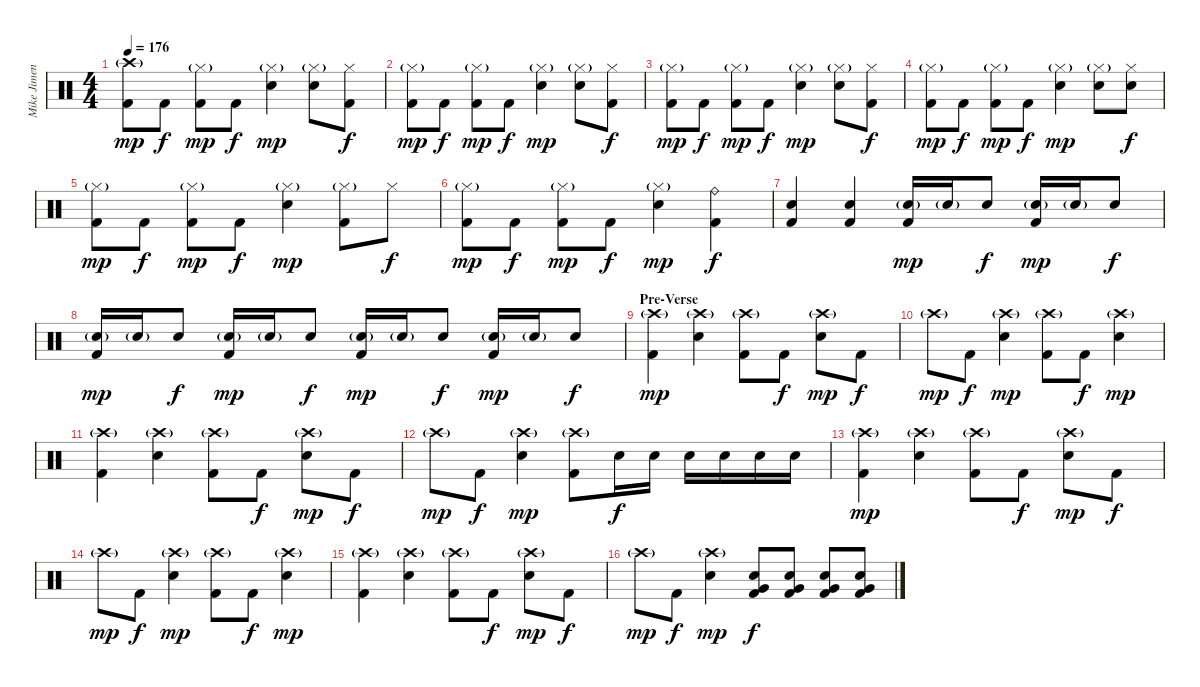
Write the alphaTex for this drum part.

\track ("Mike Jimenez" "Mike Jimen") {instrument percussion}
\staff {score}
\articulation defaults
\ts (4 4)
\tempo 176
\clef neutral
\ks c
("Crash high (hit)"{g} "Kick (hit) 2").8{dy mp} "Kick (hit) 2".8{dy f} ("Hi-Hat (closed)"{g} "Kick (hit) 2").8{dy mp} "Kick (hit) 2".8{dy f} ("Hi-Hat (closed)"{g} "Electric Snare (hit)").4{dy mp} ("Hi-Hat (closed)"{g} "Electric Snare (hit)").8 ("Hi-Hat (closed)" "Kick (hit) 2").8{dy f} |
("Hi-Hat (closed)"{g} "Kick (hit) 2").8{dy mp} "Kick (hit) 2".8{dy f} ("Hi-Hat (closed)"{g} "Kick (hit) 2").8{dy mp} "Kick (hit) 2".8{dy f} ("Hi-Hat (closed)"{g} "Electric Snare (hit)").4{dy mp} ("Hi-Hat (closed)"{g} "Electric Snare (hit)").8 ("Hi-Hat (closed)" "Kick (hit) 2").8{dy f} |
("Hi-Hat (closed)"{g} "Kick (hit) 2").8{dy mp} "Kick (hit) 2".8{dy f} ("Hi-Hat (closed)"{g} "Kick (hit) 2").8{dy mp} "Kick (hit) 2".8{dy f} ("Hi-Hat (closed)"{g} "Electric Snare (hit)").4{dy mp} ("Hi-Hat (closed)"{g} "Electric Snare (hit)").8 ("Hi-Hat (closed)" "Kick (hit) 2").8{dy f} |
("Hi-Hat (closed)"{g} "Kick (hit) 2").8{dy mp} "Kick (hit) 2".8{dy f} ("Hi-Hat (closed)"{g} "Kick (hit) 2").8{dy mp} "Kick (hit) 2".8{dy f} ("Hi-Hat (closed)"{g} "Electric Snare (hit)").4{dy mp} ("Hi-Hat (closed)"{g} "Electric Snare (hit)").8 ("Hi-Hat (closed)" "Electric Snare (hit)").8{dy f} |
("Hi-Hat (closed)"{g} "Kick (hit) 2").8{dy mp} "Kick (hit) 2".8{dy f} ("Hi-Hat (closed)"{g} "Kick (hit) 2").8{dy mp} "Kick (hit) 2".8{dy f} ("Hi-Hat (closed)"{g} "Electric Snare (hit)").4{dy mp} ("Hi-Hat (closed)"{g} "Kick (hit) 2").8 "Hi-Hat (closed)".8{dy f} |
("Hi-Hat (closed)"{g} "Kick (hit) 2").8{dy mp} "Kick (hit) 2".8{dy f} ("Hi-Hat (closed)"{g} "Kick (hit) 2").8{dy mp} "Kick (hit) 2".8{dy f} ("Hi-Hat (closed)"{g} "Electric Snare (hit)").4{dy mp} ("Ride (bell)" "Kick (hit) 2").4{dy f} |
("Electric Snare (hit)" "Kick (hit) 2").4 ("Electric Snare (hit)" "Kick (hit) 2").4 ("Electric Snare (hit)"{g} "Kick (hit) 2").16{dy mp} "Electric Snare (hit)"{g}.16 "Electric Snare (hit)".8{dy f} ("Electric Snare (hit)"{g} "Kick (hit) 2").16{dy mp} "Electric Snare (hit)"{g}.16 "Electric Snare (hit)".8{dy f} |
("Electric Snare (hit)"{g} "Kick (hit) 2").16{dy mp} "Electric Snare (hit)"{g}.16 "Electric Snare (hit)".8{dy f} ("Electric Snare (hit)"{g} "Kick (hit) 2").16{dy mp} "Electric Snare (hit)"{g}.16 "Electric Snare (hit)".8{dy f} ("Electric Snare (hit)"{g} "Kick (hit) 2").16{dy mp} "Electric Snare (hit)"{g}.16 "Electric Snare (hit)".8{dy f} ("Electric Snare (hit)"{g} "Kick (hit) 2").16{dy mp} "Electric Snare (hit)"{g}.16 "Electric Snare (hit)".8{dy f} |
\section ("" "Pre-Verse")
("Crash high (hit)"{g} "Kick (hit) 2").4{dy mp} ("Crash high (hit)"{g} "Electric Snare (hit)").4 ("Crash high (hit)"{g} "Kick (hit) 2").8 "Kick (hit) 2".8{dy f} ("Crash high (hit)"{g} "Electric Snare (hit)").8{dy mp} "Kick (hit) 2".8{dy f} |
"Crash high (hit)"{g}.8{dy mp} "Kick (hit) 2".8{dy f} ("Crash high (hit)"{g} "Electric Snare (hit)").4{dy mp} ("Crash high (hit)"{g} "Kick (hit) 2").8 "Kick (hit) 2".8{dy f} ("Crash high (hit)"{g} "Electric Snare (hit)").4{dy mp} |
("Crash high (hit)"{g} "Kick (hit) 2").4 ("Crash high (hit)"{g} "Electric Snare (hit)").4 ("Crash high (hit)"{g} "Kick (hit) 2").8 "Kick (hit) 2".8{dy f} ("Crash high (hit)"{g} "Electric Snare (hit)").8{dy mp} "Kick (hit) 2".8{dy f} |
"Crash high (hit)"{g}.8{dy mp} "Kick (hit) 2".8{dy f} ("Crash high (hit)"{g} "Electric Snare (hit)").4{dy mp} ("Crash high (hit)"{g} "Kick (hit) 2").8 "Electric Snare (hit)".16{dy f} "Electric Snare (hit)".16 "Electric Snare (hit)".16 "Electric Snare (hit)".16 "Electric Snare (hit)".16 "Electric Snare (hit)".16 |
("Crash high (hit)"{g} "Kick (hit) 2").4{dy mp} ("Crash high (hit)"{g} "Electric Snare (hit)").4 ("Crash high (hit)"{g} "Kick (hit) 2").8 "Kick (hit) 2".8{dy f} ("Crash high (hit)"{g} "Electric Snare (hit)").8{dy mp} "Kick (hit) 2".8{dy f} |
"Crash high (hit)"{g}.8{dy mp} "Kick (hit) 2".8{dy f} ("Crash high (hit)"{g} "Electric Snare (hit)").4{dy mp} ("Crash high (hit)"{g} "Kick (hit) 2").8 "Kick (hit) 2".8{dy f} ("Crash high (hit)"{g} "Electric Snare (hit)").4{dy mp} |
("Crash high (hit)"{g} "Kick (hit) 2").4 ("Crash high (hit)"{g} "Electric Snare (hit)").4 ("Crash high (hit)"{g} "Kick (hit) 2").8 "Kick (hit) 2".8{dy f} ("Crash high (hit)"{g} "Electric Snare (hit)").8{dy mp} "Kick (hit) 2".8{dy f} |
"Crash high (hit)"{g}.8{dy mp} "Kick (hit) 2".8{dy f} ("Crash high (hit)"{g} "Electric Snare (hit)").4{dy mp} ("Electric Snare (hit)" "Very Low Tom (hit)" "Kick (hit) 2").8{dy f} ("Electric Snare (hit)" "Very Low Tom (hit)" "Kick (hit) 2").8 ("Electric Snare (hit)" "Very Low Tom (hit)" "Kick (hit) 2").8 ("Electric Snare (hit)" "Very Low Tom (hit)" "Kick (hit) 2").8
